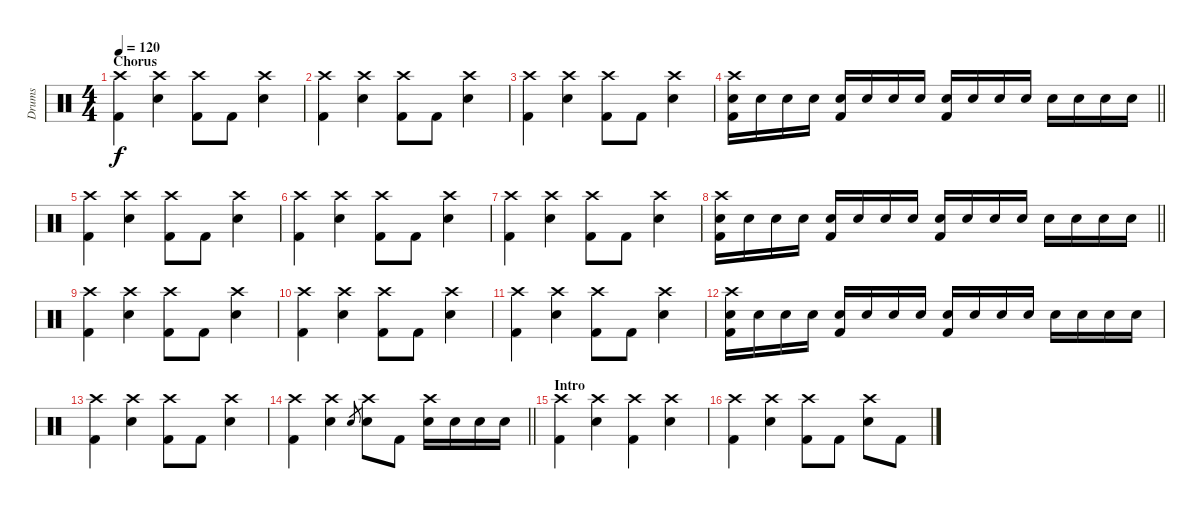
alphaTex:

\track ("Drums" "Drums") {instrument percussion}
\staff {score}
\articulation defaults
\ts (4 4)
\section ("" "Chorus")
\tempo 120
\clef neutral
\ks c
("Crash high (hit)" "Kick (hit) 2").4{dy f} ("Crash high (hit)" "Electric Snare (hit)").4 ("Crash high (hit)" "Kick (hit) 2").8 "Kick (hit) 2".8 ("Crash high (hit)" "Electric Snare (hit)").4 |
("Crash high (hit)" "Kick (hit) 2").4 ("Crash high (hit)" "Electric Snare (hit)").4 ("Crash high (hit)" "Kick (hit) 2").8 "Kick (hit) 2".8 ("Crash high (hit)" "Electric Snare (hit)").4 |
("Crash high (hit)" "Kick (hit) 2").4 ("Crash high (hit)" "Electric Snare (hit)").4 ("Crash high (hit)" "Kick (hit) 2").8 "Kick (hit) 2".8 ("Crash high (hit)" "Electric Snare (hit)").4 |
\barLineRight lightlight
("Crash high (hit)" "Electric Snare (hit)" "Kick (hit) 2").16 "Electric Snare (hit)".16 "Electric Snare (hit)".16 "Electric Snare (hit)".16 ("Electric Snare (hit)" "Kick (hit) 2").16 "Electric Snare (hit)".16 "Electric Snare (hit)".16 "Electric Snare (hit)".16 ("Electric Snare (hit)" "Kick (hit) 2").16 "Electric Snare (hit)".16 "Electric Snare (hit)".16 "Electric Snare (hit)".16 "Electric Snare (hit)".16 "Electric Snare (hit)".16 "Electric Snare (hit)".16 "Electric Snare (hit)".16 |
("Crash high (hit)" "Kick (hit) 2").4 ("Crash high (hit)" "Electric Snare (hit)").4 ("Crash high (hit)" "Kick (hit) 2").8 "Kick (hit) 2".8 ("Crash high (hit)" "Electric Snare (hit)").4 |
("Crash high (hit)" "Kick (hit) 2").4 ("Crash high (hit)" "Electric Snare (hit)").4 ("Crash high (hit)" "Kick (hit) 2").8 "Kick (hit) 2".8 ("Crash high (hit)" "Electric Snare (hit)").4 |
("Crash high (hit)" "Kick (hit) 2").4 ("Crash high (hit)" "Electric Snare (hit)").4 ("Crash high (hit)" "Kick (hit) 2").8 "Kick (hit) 2".8 ("Crash high (hit)" "Electric Snare (hit)").4 |
\barLineRight lightlight
("Crash high (hit)" "Electric Snare (hit)" "Kick (hit) 2").16 "Electric Snare (hit)".16 "Electric Snare (hit)".16 "Electric Snare (hit)".16 ("Electric Snare (hit)" "Kick (hit) 2").16 "Electric Snare (hit)".16 "Electric Snare (hit)".16 "Electric Snare (hit)".16 ("Electric Snare (hit)" "Kick (hit) 2").16 "Electric Snare (hit)".16 "Electric Snare (hit)".16 "Electric Snare (hit)".16 "Electric Snare (hit)".16 "Electric Snare (hit)".16 "Electric Snare (hit)".16 "Electric Snare (hit)".16 |
("Crash high (hit)" "Kick (hit) 2").4 ("Crash high (hit)" "Electric Snare (hit)").4 ("Crash high (hit)" "Kick (hit) 2").8 "Kick (hit) 2".8 ("Crash high (hit)" "Electric Snare (hit)").4 |
("Crash high (hit)" "Kick (hit) 2").4 ("Crash high (hit)" "Electric Snare (hit)").4 ("Crash high (hit)" "Kick (hit) 2").8 "Kick (hit) 2".8 ("Crash high (hit)" "Electric Snare (hit)").4 |
("Crash high (hit)" "Kick (hit) 2").4 ("Crash high (hit)" "Electric Snare (hit)").4 ("Crash high (hit)" "Kick (hit) 2").8 "Kick (hit) 2".8 ("Crash high (hit)" "Electric Snare (hit)").4 |
("Crash high (hit)" "Electric Snare (hit)" "Kick (hit) 2").16 "Electric Snare (hit)".16 "Electric Snare (hit)".16 "Electric Snare (hit)".16 ("Electric Snare (hit)" "Kick (hit) 2").16 "Electric Snare (hit)".16 "Electric Snare (hit)".16 "Electric Snare (hit)".16 ("Electric Snare (hit)" "Kick (hit) 2").16 "Electric Snare (hit)".16 "Electric Snare (hit)".16 "Electric Snare (hit)".16 "Electric Snare (hit)".16 "Electric Snare (hit)".16 "Electric Snare (hit)".16 "Electric Snare (hit)".16 |
("Crash high (hit)" "Kick (hit) 2").4 ("Crash high (hit)" "Electric Snare (hit)").4 ("Crash high (hit)" "Kick (hit) 2").8 "Kick (hit) 2".8 ("Crash high (hit)" "Electric Snare (hit)").4 |
\barLineRight lightlight
("Crash high (hit)" "Kick (hit) 2").4 ("Crash high (hit)" "Electric Snare (hit)").4 "Electric Snare (hit)".8{gr} ("Crash high (hit)" "Electric Snare (hit)").8 "Kick (hit) 2".8 ("Crash high (hit)" "Electric Snare (hit)").16 "Electric Snare (hit)".16 "Electric Snare (hit)".16 "Electric Snare (hit)".16 |
\section ("" "Intro")
("Crash high (hit)" "Kick (hit) 2").4 ("Crash high (hit)" "Electric Snare (hit)").4 ("Crash high (hit)" "Kick (hit) 2").4 ("Crash high (hit)" "Electric Snare (hit)").4 |
("Crash high (hit)" "Kick (hit) 2").4 ("Crash high (hit)" "Electric Snare (hit)").4 ("Crash high (hit)" "Kick (hit) 2").8 "Kick (hit) 2".8 ("Crash high (hit)" "Electric Snare (hit)").8 "Kick (hit) 2".8
